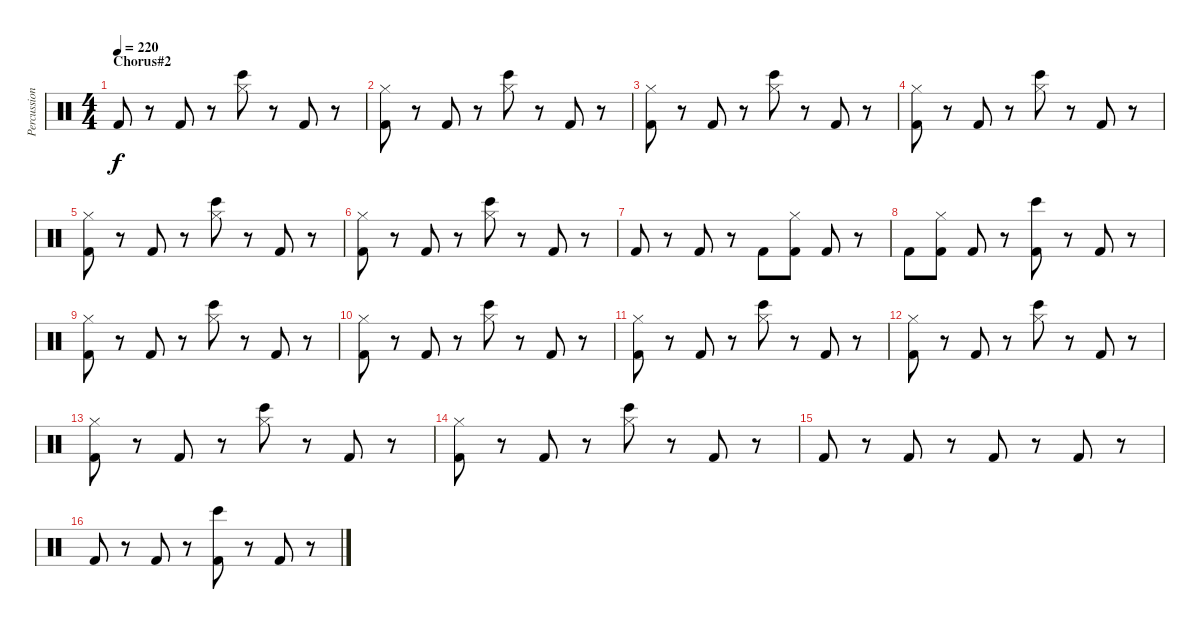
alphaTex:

\track ("Percussion" "Percussion") {instrument percussion}
\staff {score}
\articulation defaults
\ts (4 4)
\section ("" "Chorus#2")
\tempo 220
\clef neutral
\ks c "Kick (hit) 2".8{dy f}
r.8 "Kick (hit) 2".8 r.8 ("Bongo High (hit)" "Hi-Hat (closed)").8 r.8 "Kick (hit) 2".8 r.8 |
("Kick (hit) 2" "Hi-Hat (closed)").8 r.8 "Kick (hit) 2".8 r.8 ("Bongo High (hit)" "Hi-Hat (closed)").8 r.8 "Kick (hit) 2".8 r.8 |
("Kick (hit) 2" "Hi-Hat (closed)").8 r.8 "Kick (hit) 2".8 r.8 ("Bongo High (hit)" "Hi-Hat (closed)").8 r.8 "Kick (hit) 2".8 r.8 |
("Kick (hit) 2" "Hi-Hat (closed)").8 r.8 "Kick (hit) 2".8 r.8 ("Bongo High (hit)" "Hi-Hat (closed)").8 r.8 "Kick (hit) 2".8 r.8 |
("Kick (hit) 2" "Hi-Hat (closed)").8 r.8 "Kick (hit) 2".8 r.8 ("Bongo High (hit)" "Hi-Hat (closed)").8 r.8 "Kick (hit) 2".8 r.8 |
("Kick (hit) 2" "Hi-Hat (closed)").8 r.8 "Kick (hit) 2".8 r.8 ("Bongo High (hit)" "Hi-Hat (closed)").8 r.8 "Kick (hit) 2".8 r.8 |
"Kick (hit) 2".8 r.8 "Kick (hit) 2".8 r.8 "Kick (hit) 2".8 ("Kick (hit) 2" "Hi-Hat (closed)").8 "Kick (hit) 2".8 r.8 |
"Kick (hit) 2".8 ("Kick (hit) 2" "Hi-Hat (closed)").8 "Kick (hit) 2".8 r.8 ("Bongo High (hit)" "Kick (hit) 2").8 r.8 "Kick (hit) 2".8 r.8 |
("Kick (hit) 2" "Hi-Hat (closed)").8 r.8 "Kick (hit) 2".8 r.8 ("Bongo High (hit)" "Hi-Hat (closed)").8 r.8 "Kick (hit) 2".8 r.8 |
("Kick (hit) 2" "Hi-Hat (closed)").8 r.8 "Kick (hit) 2".8 r.8 ("Bongo High (hit)" "Hi-Hat (closed)").8 r.8 "Kick (hit) 2".8 r.8 |
("Kick (hit) 2" "Hi-Hat (closed)").8 r.8 "Kick (hit) 2".8 r.8 ("Bongo High (hit)" "Hi-Hat (closed)").8 r.8 "Kick (hit) 2".8 r.8 |
("Kick (hit) 2" "Hi-Hat (closed)").8 r.8 "Kick (hit) 2".8 r.8 ("Bongo High (hit)" "Hi-Hat (closed)").8 r.8 "Kick (hit) 2".8 r.8 |
("Kick (hit) 2" "Hi-Hat (closed)").8 r.8 "Kick (hit) 2".8 r.8 ("Bongo High (hit)" "Hi-Hat (closed)").8 r.8 "Kick (hit) 2".8 r.8 |
("Kick (hit) 2" "Hi-Hat (closed)").8 r.8 "Kick (hit) 2".8 r.8 ("Bongo High (hit)" "Hi-Hat (closed)").8 r.8 "Kick (hit) 2".8 r.8 |
"Kick (hit) 2".8 r.8 "Kick (hit) 2".8 r.8 "Kick (hit) 2".8 r.8 "Kick (hit) 2".8 r.8 |
"Kick (hit) 2".8 r.8 "Kick (hit) 2".8 r.8 ("Bongo High (hit)" "Kick (hit) 2").8 r.8 "Kick (hit) 2".8 r.8
